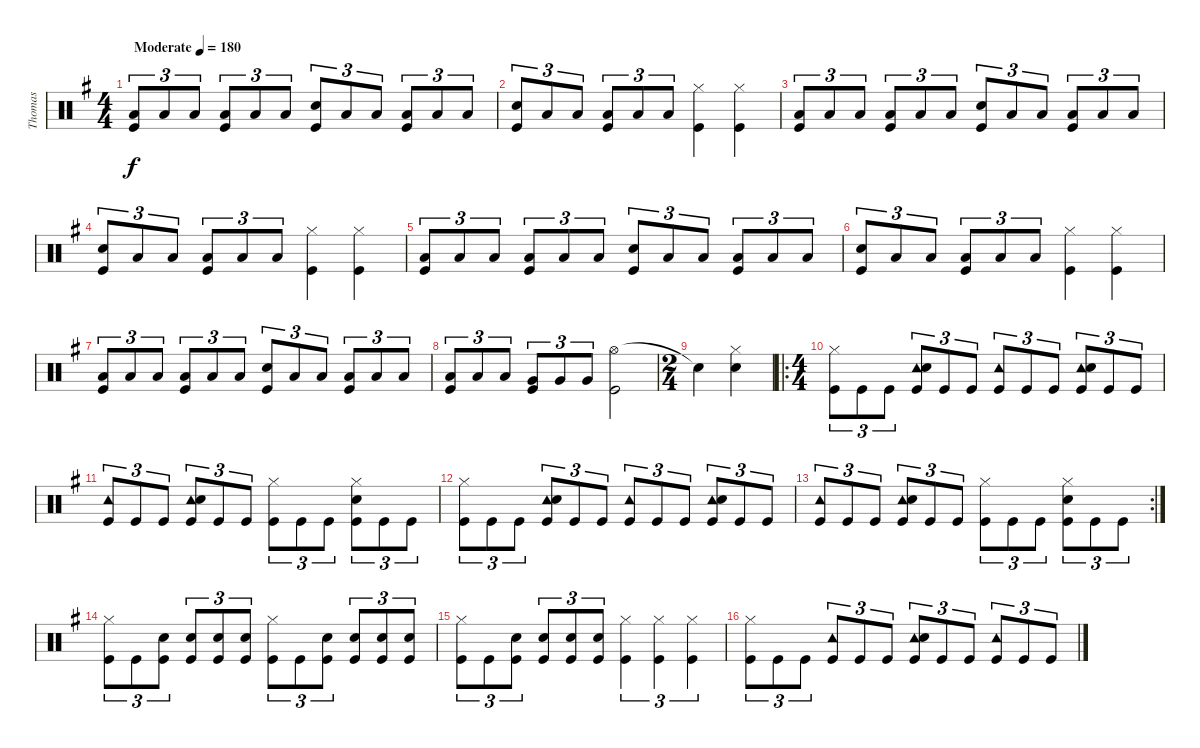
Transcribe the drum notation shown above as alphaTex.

\track ("Thomas" "Thomas") {instrument percussion}
\staff {score}
\articulation defaults
\ts (4 4)
\tempo (180 "Moderate")
\clef neutral
\ks g
("Low Tom (hit)" "Kick (hit)").8{tu (3 2) dy f} "Low Tom (hit)".8{tu (3 2)} "Low Tom (hit)".8{tu (3 2)} ("Low Tom (hit)" "Kick (hit)").8{tu (3 2)} "Low Tom (hit)".8{tu (3 2)} "Low Tom (hit)".8{tu (3 2)} ("Snare (hit) 2" "Kick (hit)").8{tu (3 2)} "Low Tom (hit)".8{tu (3 2)} "Low Tom (hit)".8{tu (3 2)} ("Low Tom (hit)" "Kick (hit)").8{tu (3 2)} "Low Tom (hit)".8{tu (3 2)} "Low Tom (hit)".8{tu (3 2)} |
("Snare (hit) 2" "Kick (hit)").8{tu (3 2)} "Low Tom (hit)".8{tu (3 2)} "Low Tom (hit)".8{tu (3 2)} ("Low Tom (hit)" "Kick (hit)").8{tu (3 2)} "Low Tom (hit)".8{tu (3 2)} "Low Tom (hit)".8{tu (3 2)} ("Hi-Hat (closed)" "Kick (hit)").4 ("Hi-Hat (closed)" "Kick (hit)").4 |
("Low Tom (hit)" "Kick (hit)").8{tu (3 2)} "Low Tom (hit)".8{tu (3 2)} "Low Tom (hit)".8{tu (3 2)} ("Low Tom (hit)" "Kick (hit)").8{tu (3 2)} "Low Tom (hit)".8{tu (3 2)} "Low Tom (hit)".8{tu (3 2)} ("Snare (hit) 2" "Kick (hit)").8{tu (3 2)} "Low Tom (hit)".8{tu (3 2)} "Low Tom (hit)".8{tu (3 2)} ("Low Tom (hit)" "Kick (hit)").8{tu (3 2)} "Low Tom (hit)".8{tu (3 2)} "Low Tom (hit)".8{tu (3 2)} |
("Snare (hit) 2" "Kick (hit)").8{tu (3 2)} "Low Tom (hit)".8{tu (3 2)} "Low Tom (hit)".8{tu (3 2)} ("Low Tom (hit)" "Kick (hit)").8{tu (3 2)} "Low Tom (hit)".8{tu (3 2)} "Low Tom (hit)".8{tu (3 2)} ("Hi-Hat (closed)" "Kick (hit)").4 ("Hi-Hat (closed)" "Kick (hit)").4 |
("Low Tom (hit)" "Kick (hit)").8{tu (3 2)} "Low Tom (hit)".8{tu (3 2)} "Low Tom (hit)".8{tu (3 2)} ("Low Tom (hit)" "Kick (hit)").8{tu (3 2)} "Low Tom (hit)".8{tu (3 2)} "Low Tom (hit)".8{tu (3 2)} ("Snare (hit) 2" "Kick (hit)").8{tu (3 2)} "Low Tom (hit)".8{tu (3 2)} "Low Tom (hit)".8{tu (3 2)} ("Low Tom (hit)" "Kick (hit)").8{tu (3 2)} "Low Tom (hit)".8{tu (3 2)} "Low Tom (hit)".8{tu (3 2)} |
("Snare (hit) 2" "Kick (hit)").8{tu (3 2)} "Low Tom (hit)".8{tu (3 2)} "Low Tom (hit)".8{tu (3 2)} ("Low Tom (hit)" "Kick (hit)").8{tu (3 2)} "Low Tom (hit)".8{tu (3 2)} "Low Tom (hit)".8{tu (3 2)} ("Hi-Hat (closed)" "Kick (hit)").4 ("Hi-Hat (closed)" "Kick (hit)").4 |
("Low Tom (hit)" "Kick (hit)").8{tu (3 2)} "Low Tom (hit)".8{tu (3 2)} "Low Tom (hit)".8{tu (3 2)} ("Low Tom (hit)" "Kick (hit)").8{tu (3 2)} "Low Tom (hit)".8{tu (3 2)} "Low Tom (hit)".8{tu (3 2)} ("Snare (hit) 2" "Kick (hit)").8{tu (3 2)} "Low Tom (hit)".8{tu (3 2)} "Low Tom (hit)".8{tu (3 2)} ("Low Tom (hit)" "Kick (hit)").8{tu (3 2)} "Low Tom (hit)".8{tu (3 2)} "Low Tom (hit)".8{tu (3 2)} |
("Low Tom (hit)" "Kick (hit)").8{tu (3 2)} "Low Tom (hit)".8{tu (3 2)} "Low Tom (hit)".8{tu (3 2)} ("Very Low Tom (hit)" "Kick (hit)").8{tu (3 2)} "Very Low Tom (hit)".8{tu (3 2)} "Very Low Tom (hit)".8{tu (3 2)} ("Hi-Hat (open)" "Kick (hit)").2 |
\ts (2 4)
"Snare (hit)"{t}.4 ("Hi-Hat (closed)" "Snare (hit) 2").4 |
\ro
\ts (4 4)
("Hi-Hat (closed)" "Kick (hit)").8{tu (3 2)} "Kick (hit)".8{tu (3 2)} "Kick (hit)".8{tu (3 2)} ("Tambourine (hit)" "Snare (hit) 2" "Kick (hit)").8{tu (3 2)} "Kick (hit)".8{tu (3 2)} "Kick (hit)".8{tu (3 2)} ("Tambourine (hit)" "Kick (hit)").8{tu (3 2)} "Kick (hit)".8{tu (3 2)} "Kick (hit)".8{tu (3 2)} ("Tambourine (hit)" "Snare (hit) 2" "Kick (hit)").8{tu (3 2)} "Kick (hit)".8{tu (3 2)} "Kick (hit)".8{tu (3 2)} |
("Tambourine (hit)" "Kick (hit)").8{tu (3 2)} "Kick (hit)".8{tu (3 2)} "Kick (hit)".8{tu (3 2)} ("Tambourine (hit)" "Snare (hit) 2" "Kick (hit)").8{tu (3 2)} "Kick (hit)".8{tu (3 2)} "Kick (hit)".8{tu (3 2)} ("Hi-Hat (closed)" "Kick (hit)").8{tu (3 2)} "Kick (hit)".8{tu (3 2)} "Kick (hit)".8{tu (3 2)} ("Hi-Hat (closed)" "Snare (hit) 2" "Kick (hit)").8{tu (3 2)} "Kick (hit)".8{tu (3 2)} "Kick (hit)".8{tu (3 2)} |
("Hi-Hat (closed)" "Kick (hit)").8{tu (3 2)} "Kick (hit)".8{tu (3 2)} "Kick (hit)".8{tu (3 2)} ("Tambourine (hit)" "Snare (hit) 2" "Kick (hit)").8{tu (3 2)} "Kick (hit)".8{tu (3 2)} "Kick (hit)".8{tu (3 2)} ("Tambourine (hit)" "Kick (hit)").8{tu (3 2)} "Kick (hit)".8{tu (3 2)} "Kick (hit)".8{tu (3 2)} ("Tambourine (hit)" "Snare (hit) 2" "Kick (hit)").8{tu (3 2)} "Kick (hit)".8{tu (3 2)} "Kick (hit)".8{tu (3 2)} |
\rc 2
("Tambourine (hit)" "Kick (hit)").8{tu (3 2)} "Kick (hit)".8{tu (3 2)} "Kick (hit)".8{tu (3 2)} ("Tambourine (hit)" "Snare (hit) 2" "Kick (hit)").8{tu (3 2)} "Kick (hit)".8{tu (3 2)} "Kick (hit)".8{tu (3 2)} ("Hi-Hat (closed)" "Kick (hit)").8{tu (3 2)} "Kick (hit)".8{tu (3 2)} "Kick (hit)".8{tu (3 2)} ("Hi-Hat (closed)" "Snare (hit) 2" "Kick (hit)").8{tu (3 2)} "Kick (hit)".8{tu (3 2)} "Kick (hit)".8{tu (3 2)} |
("Hi-Hat (closed)" "Kick (hit)").8{tu (3 2)} "Kick (hit)".8{tu (3 2)} ("Snare (hit) 2" "Kick (hit)").8{tu (3 2)} ("Snare (hit) 2" "Kick (hit)").8{tu (3 2)} ("Snare (hit) 2" "Kick (hit)").8{tu (3 2)} ("Snare (hit) 2" "Kick (hit)").8{tu (3 2)} ("Hi-Hat (closed)" "Kick (hit)").8{tu (3 2)} "Kick (hit)".8{tu (3 2)} ("Snare (hit) 2" "Kick (hit)").8{tu (3 2)} ("Snare (hit) 2" "Kick (hit)").8{tu (3 2)} ("Snare (hit) 2" "Kick (hit)").8{tu (3 2)} ("Snare (hit) 2" "Kick (hit)").8{tu (3 2)} |
("Hi-Hat (closed)" "Kick (hit)").8{tu (3 2)} "Kick (hit)".8{tu (3 2)} ("Snare (hit) 2" "Kick (hit)").8{tu (3 2)} ("Snare (hit) 2" "Kick (hit)").8{tu (3 2)} ("Snare (hit) 2" "Kick (hit)").8{tu (3 2)} ("Snare (hit) 2" "Kick (hit)").8{tu (3 2)} ("Hi-Hat (closed)" "Kick (hit)").4{tu (3 2)} ("Hi-Hat (closed)" "Kick (hit)").4{tu (3 2)} ("Hi-Hat (closed)" "Kick (hit)").4{tu (3 2)} |
("Hi-Hat (closed)" "Kick (hit)").8{tu (3 2)} "Kick (hit)".8{tu (3 2)} "Kick (hit)".8{tu (3 2)} ("Tambourine (hit)" "Kick (hit)").8{tu (3 2)} "Kick (hit)".8{tu (3 2)} "Kick (hit)".8{tu (3 2)} ("Tambourine (hit)" "Snare (hit) 2" "Kick (hit)").8{tu (3 2)} "Kick (hit)".8{tu (3 2)} "Kick (hit)".8{tu (3 2)} ("Tambourine (hit)" "Kick (hit)").8{tu (3 2)} "Kick (hit)".8{tu (3 2)} "Kick (hit)".8{tu (3 2)}
